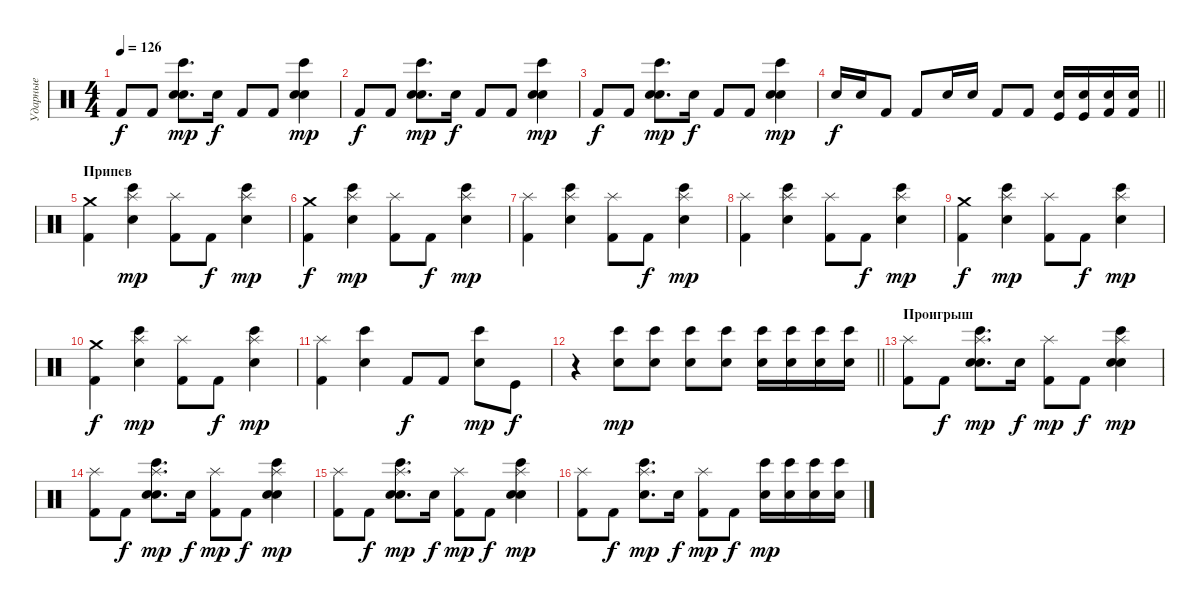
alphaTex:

\track ("Ударные" "Ударные") {instrument percussion}
\staff {score}
\articulation defaults
\ts (4 4)
\tempo 126
\clef neutral
\ks c "Kick (hit) 2".8{dy f} "Kick (hit) 2".8
("Electric Snare (hit)" "Bongo High (hit)" "Snare (hit) 2").8{d dy mp} "Electric Snare (hit)".16{dy f} "Kick (hit) 2".8 "Kick (hit) 2".8 ("Electric Snare (hit)" "Bongo High (hit)" "Snare (hit) 2").4{dy mp} |
"Kick (hit) 2".8{dy f} "Kick (hit) 2".8 ("Electric Snare (hit)" "Bongo High (hit)" "Snare (hit) 2").8{d dy mp} "Electric Snare (hit)".16{dy f} "Kick (hit) 2".8 "Kick (hit) 2".8 ("Electric Snare (hit)" "Bongo High (hit)" "Snare (hit) 2").4{dy mp} |
"Kick (hit) 2".8{dy f} "Kick (hit) 2".8 ("Electric Snare (hit)" "Bongo High (hit)" "Snare (hit) 2").8{d dy mp} "Electric Snare (hit)".16{dy f} "Kick (hit) 2".8 "Kick (hit) 2".8 ("Electric Snare (hit)" "Bongo High (hit)" "Snare (hit) 2").4{dy mp} |
\barLineRight lightlight "Electric Snare (hit)".16{dy f} "Electric Snare (hit)".16 "Kick (hit) 2".8 "Kick (hit) 2".8 "Electric Snare (hit)".16 "Electric Snare (hit)".16 "Kick (hit) 2".8 "Kick (hit) 2".8
("Electric Snare (hit)" "Kick (hit)").16 ("Electric Snare (hit)" "Kick (hit)").16 ("Electric Snare (hit)" "Kick (hit) 2").16 ("Electric Snare (hit)" "Kick (hit) 2").16 |
\section ("" "Припев")
("Crash medium (hit)" "Kick (hit) 2").4 ("Splash (hit)" "Electric Snare (hit)" "Bongo High (hit)").4{dy mp} ("Splash (hit)" "Kick (hit) 2").8 "Kick (hit) 2".8{dy f} ("Splash (hit)" "Electric Snare (hit)" "Bongo High (hit)").4{dy mp} |
("Crash medium (hit)" "Kick (hit) 2").4{dy f} ("Splash (hit)" "Electric Snare (hit)" "Bongo High (hit)").4{dy mp} ("Splash (hit)" "Kick (hit) 2").8 "Kick (hit) 2".8{dy f} ("Splash (hit)" "Electric Snare (hit)" "Bongo High (hit)").4{dy mp} |
("Splash (hit)" "Kick (hit) 2").4 ("Splash (hit)" "Electric Snare (hit)" "Bongo High (hit)").4 ("Splash (hit)" "Kick (hit) 2").8 "Kick (hit) 2".8{dy f} ("Splash (hit)" "Electric Snare (hit)" "Bongo High (hit)").4{dy mp} |
("Splash (hit)" "Kick (hit) 2").4 ("Splash (hit)" "Electric Snare (hit)" "Bongo High (hit)").4 ("Splash (hit)" "Kick (hit) 2").8 "Kick (hit) 2".8{dy f} ("Splash (hit)" "Electric Snare (hit)" "Bongo High (hit)").4{dy mp} |
("Crash medium (hit)" "Kick (hit) 2").4{dy f} ("Splash (hit)" "Electric Snare (hit)" "Bongo High (hit)").4{dy mp} ("Splash (hit)" "Kick (hit) 2").8 "Kick (hit) 2".8{dy f} ("Splash (hit)" "Electric Snare (hit)" "Bongo High (hit)").4{dy mp} |
("Crash medium (hit)" "Kick (hit) 2").4{dy f} ("Splash (hit)" "Electric Snare (hit)" "Bongo High (hit)").4{dy mp} ("Splash (hit)" "Kick (hit) 2").8 "Kick (hit) 2".8{dy f} ("Splash (hit)" "Electric Snare (hit)" "Bongo High (hit)").4{dy mp} |
("Splash (hit)" "Kick (hit) 2").4 ("Electric Snare (hit)" "Bongo High (hit)").4 "Kick (hit) 2".8{dy f} "Kick (hit) 2".8 ("Electric Snare (hit)" "Bongo High (hit)").8{dy mp} "Kick (hit)".8{dy f} |
\barLineRight lightlight
r.4 ("Electric Snare (hit)" "Bongo High (hit)").8{dy mp} ("Electric Snare (hit)" "Bongo High (hit)").8 ("Electric Snare (hit)" "Bongo High (hit)").8 ("Electric Snare (hit)" "Bongo High (hit)").8 ("Electric Snare (hit)" "Bongo High (hit)").16 ("Electric Snare (hit)" "Bongo High (hit)").16 ("Electric Snare (hit)" "Bongo High (hit)").16 ("Electric Snare (hit)" "Bongo High (hit)").16 |
\section ("" "Проигрыш")
("Splash (hit)" "Kick (hit) 2").8 "Kick (hit) 2".8{dy f} ("Splash (hit)" "Electric Snare (hit)" "Bongo High (hit)" "Snare (hit) 2").8{d dy mp} "Electric Snare (hit)".16{dy f} ("Splash (hit)" "Kick (hit) 2").8{dy mp} "Kick (hit) 2".8{dy f} ("Splash (hit)" "Electric Snare (hit)" "Bongo High (hit)" "Snare (hit) 2").4{dy mp} |
("Splash (hit)" "Kick (hit) 2").8 "Kick (hit) 2".8{dy f} ("Splash (hit)" "Electric Snare (hit)" "Bongo High (hit)" "Snare (hit) 2").8{d dy mp} "Electric Snare (hit)".16{dy f} ("Splash (hit)" "Kick (hit) 2").8{dy mp} "Kick (hit) 2".8{dy f} ("Splash (hit)" "Electric Snare (hit)" "Bongo High (hit)" "Snare (hit) 2").4{dy mp} |
("Splash (hit)" "Kick (hit) 2").8 "Kick (hit) 2".8{dy f} ("Splash (hit)" "Electric Snare (hit)" "Bongo High (hit)" "Snare (hit) 2").8{d dy mp} "Electric Snare (hit)".16{dy f} ("Splash (hit)" "Kick (hit) 2").8{dy mp} "Kick (hit) 2".8{dy f} ("Splash (hit)" "Electric Snare (hit)" "Bongo High (hit)" "Snare (hit) 2").4{dy mp} |
("Splash (hit)" "Kick (hit) 2").8 "Kick (hit) 2".8{dy f} ("Splash (hit)" "Electric Snare (hit)" "Bongo High (hit)").8{d dy mp} "Electric Snare (hit)".16{dy f} ("Splash (hit)" "Kick (hit) 2").8{dy mp} "Kick (hit) 2".8{dy f} ("Electric Snare (hit)" "Bongo High (hit)").16{dy mp} ("Electric Snare (hit)" "Bongo High (hit)").16 ("Electric Snare (hit)" "Bongo High (hit)").16 ("Electric Snare (hit)" "Bongo High (hit)").16
